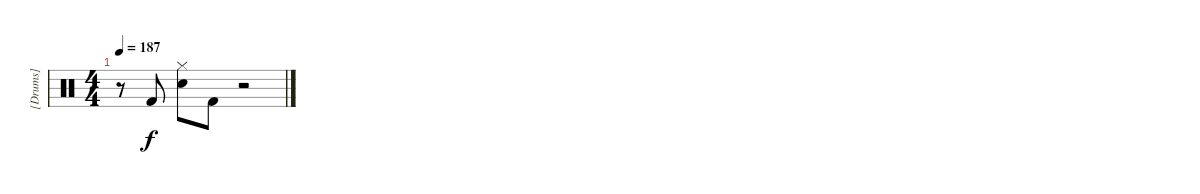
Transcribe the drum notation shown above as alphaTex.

\track ("[Drums]" "[Drums]") {instrument percussion}
\staff {score}
\articulation defaults
\ts (4 4)
\tempo 187
\clef neutral
\ks c
r.8{dy f} "Kick (hit) 2".8 ("Hi-Hat (closed)" "Electric Snare (hit)").8 "Kick (hit) 2".8 r.2
